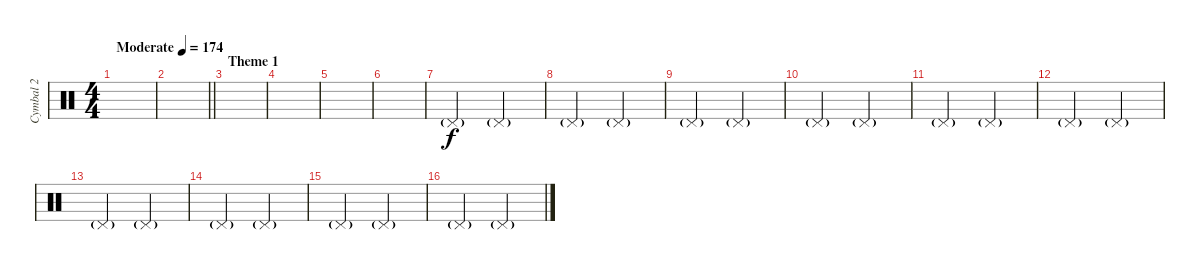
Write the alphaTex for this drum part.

\track ("Cymbal 2" "Cymbal 2") {instrument percussion}
\staff {score}
\articulation defaults
\ts (4 4)
\tempo (174 "Moderate")
\clef neutral
\ks c
|
\barLineRight lightlight
|
\section ("" "Theme 1")
|
|
|
|
"Pedal Hi-Hat (hit)"{g}.2 "Pedal Hi-Hat (hit)"{g}.2 |
"Pedal Hi-Hat (hit)"{g}.2 "Pedal Hi-Hat (hit)"{g}.2 |
"Pedal Hi-Hat (hit)"{g}.2 "Pedal Hi-Hat (hit)"{g}.2 |
"Pedal Hi-Hat (hit)"{g}.2 "Pedal Hi-Hat (hit)"{g}.2 |
"Pedal Hi-Hat (hit)"{g}.2 "Pedal Hi-Hat (hit)"{g}.2 |
"Pedal Hi-Hat (hit)"{g}.2 "Pedal Hi-Hat (hit)"{g}.2 |
"Pedal Hi-Hat (hit)"{g}.2 "Pedal Hi-Hat (hit)"{g}.2 |
"Pedal Hi-Hat (hit)"{g}.2 "Pedal Hi-Hat (hit)"{g}.2 |
"Pedal Hi-Hat (hit)"{g}.2 "Pedal Hi-Hat (hit)"{g}.2 |
"Pedal Hi-Hat (hit)"{g}.2 "Pedal Hi-Hat (hit)"{g}.2
